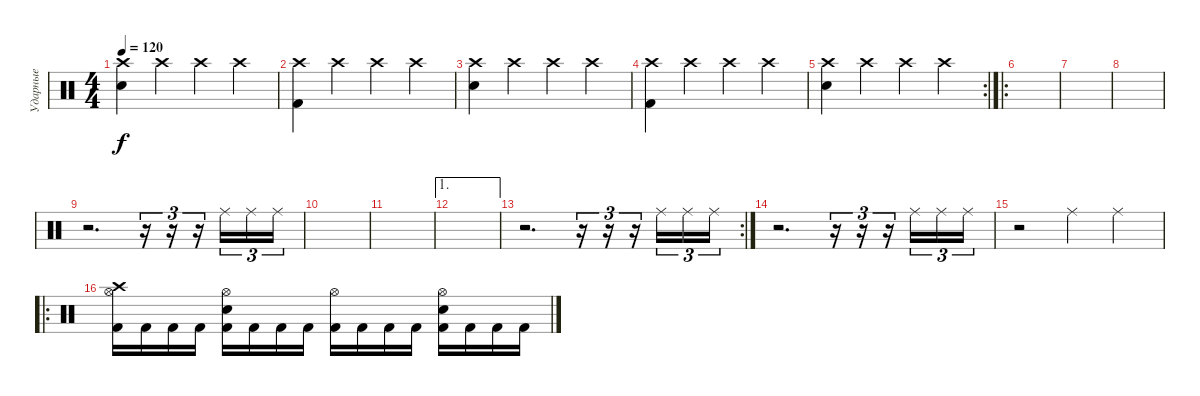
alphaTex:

\track ("Ударные" "Ударные") {instrument percussion}
\staff {score}
\articulation defaults
\ts (4 4)
\tempo 120
\clef neutral
\ks c
("Crash high (hit)" "Snare (hit) 2").4{dy f} "Crash high (hit)".4 "Crash high (hit)".4 "Crash high (hit)".4 |
("Crash high (hit)" "Kick (hit) 2").4 "Crash high (hit)".4 "Crash high (hit)".4 "Crash high (hit)".4 |
("Crash high (hit)" "Snare (hit) 2").4 "Crash high (hit)".4 "Crash high (hit)".4 "Crash high (hit)".4 |
("Crash high (hit)" "Kick (hit) 2").4 "Crash high (hit)".4 "Crash high (hit)".4 "Crash high (hit)".4 |
\rc 2
("Crash high (hit)" "Snare (hit) 2").4 "Crash high (hit)".4 "Crash high (hit)".4 "Crash high (hit)".4 |
\ro
|
|
|
r.2{d} r.16{tu (3 2)} r.16{tu (3 2)} r.16{tu (3 2)} "Ride (middle)".16{tu (3 2)} "Ride (middle)".16{tu (3 2)} "Ride (middle)".16{tu (3 2)} |
|
|
\ae 1
|
\rc 2
r.2{d} r.16{tu (3 2)} r.16{tu (3 2)} r.16{tu (3 2)} "Ride (middle)".16{tu (3 2)} "Ride (middle)".16{tu (3 2)} "Ride (middle)".16{tu (3 2)} |
r.2{d} r.16{tu (3 2)} r.16{tu (3 2)} r.16{tu (3 2)} "Ride (middle)".16{tu (3 2)} "Ride (middle)".16{tu (3 2)} "Ride (middle)".16{tu (3 2)} |
r.2 "Ride (middle)".4 "Ride (middle)".4 |
\ro
("Hi-Hat (open)" "Crash high (hit)" "Kick (hit) 2").16 "Kick (hit) 2".16 "Kick (hit) 2".16 "Kick (hit) 2".16 ("Hi-Hat (open)" "Snare (hit) 2" "Kick (hit) 2").16 "Kick (hit) 2".16 "Kick (hit) 2".16 "Kick (hit) 2".16 ("Hi-Hat (open)" "Kick (hit) 2").16 "Kick (hit) 2".16 "Kick (hit) 2".16 "Kick (hit) 2".16 ("Hi-Hat (open)" "Snare (hit) 2" "Kick (hit) 2").16 "Kick (hit) 2".16 "Kick (hit) 2".16 "Kick (hit) 2".16
